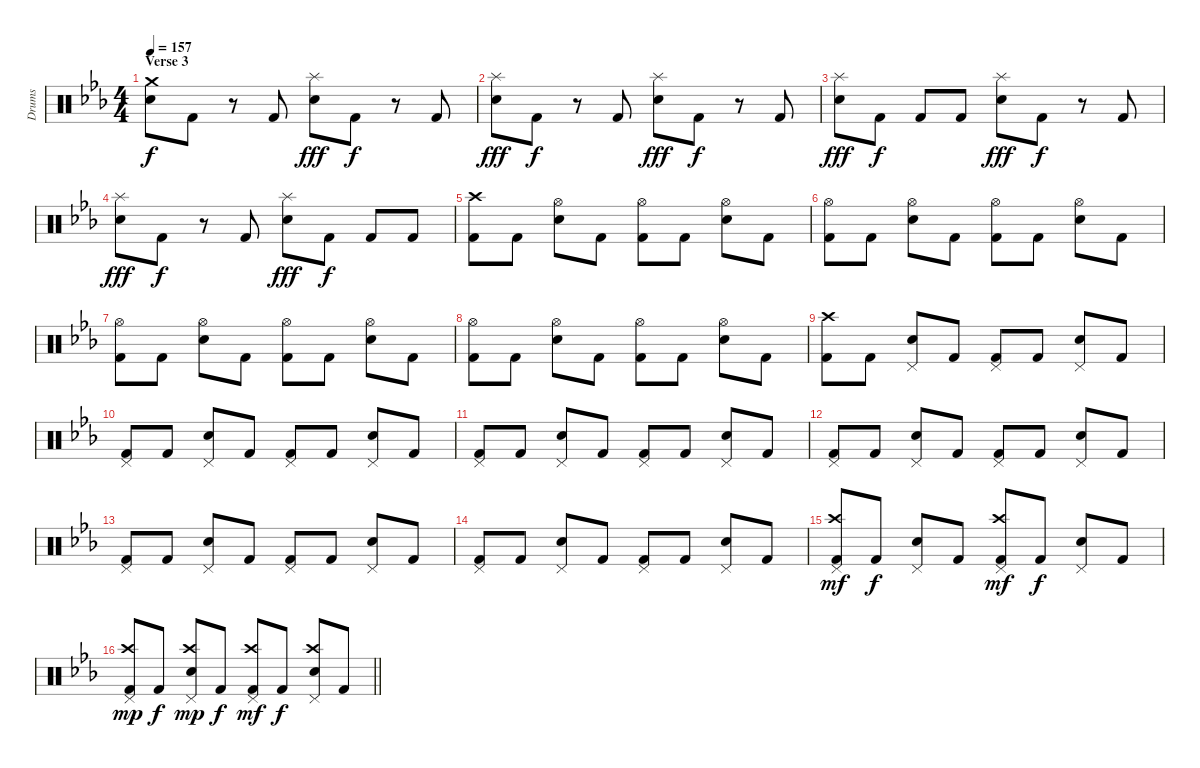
\track ("Drums" "Drums") {instrument percussion}
\staff {score}
\articulation defaults
\ts (4 4)
\section ("" "Verse 3")
\tempo 157
\clef neutral
\ks cminor
("Crash medium (hit)" "Electric Snare (hit)").8{dy f} "Kick (hit) 2".8 r.8 "Kick (hit) 2".8 ("Splash (hit)" "Electric Snare (hit)").8{dy fff} "Kick (hit) 2".8{dy f} r.8 "Kick (hit) 2".8 |
("Splash (hit)" "Electric Snare (hit)").8{dy fff} "Kick (hit) 2".8{dy f} r.8 "Kick (hit) 2".8 ("Splash (hit)" "Electric Snare (hit)").8{dy fff} "Kick (hit) 2".8{dy f} r.8 "Kick (hit) 2".8 |
("Splash (hit)" "Electric Snare (hit)").8{dy fff} "Kick (hit) 2".8{dy f} "Kick (hit) 2".8 "Kick (hit) 2".8 ("Splash (hit)" "Electric Snare (hit)").8{dy fff} "Kick (hit) 2".8{dy f} r.8 "Kick (hit) 2".8 |
("Splash (hit)" "Electric Snare (hit)").8{dy fff} "Kick (hit) 2".8{dy f} r.8 "Kick (hit) 2".8 ("Splash (hit)" "Electric Snare (hit)").8{dy fff} "Kick (hit) 2".8{dy f} "Kick (hit) 2".8 "Kick (hit) 2".8 |
("Crash high (hit)" "Kick (hit) 2").8 "Kick (hit) 2".8 ("Hi-Hat (open)" "Electric Snare (hit)").8 "Kick (hit) 2".8 ("Hi-Hat (open)" "Kick (hit) 2").8 "Kick (hit) 2".8 ("Hi-Hat (open)" "Electric Snare (hit)").8 "Kick (hit) 2".8 |
("Hi-Hat (open)" "Kick (hit) 2").8 "Kick (hit) 2".8 ("Hi-Hat (open)" "Electric Snare (hit)").8 "Kick (hit) 2".8 ("Hi-Hat (open)" "Kick (hit) 2").8 "Kick (hit) 2".8 ("Hi-Hat (open)" "Electric Snare (hit)").8 "Kick (hit) 2".8 |
("Hi-Hat (open)" "Kick (hit) 2").8 "Kick (hit) 2".8 ("Hi-Hat (open)" "Electric Snare (hit)").8 "Kick (hit) 2".8 ("Hi-Hat (open)" "Kick (hit) 2").8 "Kick (hit) 2".8 ("Hi-Hat (open)" "Electric Snare (hit)").8 "Kick (hit) 2".8 |
("Hi-Hat (open)" "Kick (hit) 2").8 "Kick (hit) 2".8 ("Hi-Hat (open)" "Electric Snare (hit)").8 "Kick (hit) 2".8 ("Hi-Hat (open)" "Kick (hit) 2").8 "Kick (hit) 2".8 ("Hi-Hat (open)" "Electric Snare (hit)").8 "Kick (hit) 2".8 |
("Crash high (hit)" "Kick (hit) 2").8 "Kick (hit) 2".8 ("Pedal Hi-Hat (hit)" "Electric Snare (hit)").8 "Kick (hit) 2".8 ("Pedal Hi-Hat (hit)" "Kick (hit) 2").8 "Kick (hit) 2".8 ("Pedal Hi-Hat (hit)" "Electric Snare (hit)").8 "Kick (hit) 2".8 |
("Pedal Hi-Hat (hit)" "Kick (hit) 2").8 "Kick (hit) 2".8 ("Pedal Hi-Hat (hit)" "Electric Snare (hit)").8 "Kick (hit) 2".8 ("Pedal Hi-Hat (hit)" "Kick (hit) 2").8 "Kick (hit) 2".8 ("Pedal Hi-Hat (hit)" "Electric Snare (hit)").8 "Kick (hit) 2".8 |
("Pedal Hi-Hat (hit)" "Kick (hit) 2").8 "Kick (hit) 2".8 ("Pedal Hi-Hat (hit)" "Electric Snare (hit)").8 "Kick (hit) 2".8 ("Pedal Hi-Hat (hit)" "Kick (hit) 2").8 "Kick (hit) 2".8 ("Pedal Hi-Hat (hit)" "Electric Snare (hit)").8 "Kick (hit) 2".8 |
("Pedal Hi-Hat (hit)" "Kick (hit) 2").8 "Kick (hit) 2".8 ("Pedal Hi-Hat (hit)" "Electric Snare (hit)").8 "Kick (hit) 2".8 ("Pedal Hi-Hat (hit)" "Kick (hit) 2").8 "Kick (hit) 2".8 ("Pedal Hi-Hat (hit)" "Electric Snare (hit)").8 "Kick (hit) 2".8 |
("Pedal Hi-Hat (hit)" "Kick (hit) 2").8 "Kick (hit) 2".8 ("Pedal Hi-Hat (hit)" "Electric Snare (hit)").8 "Kick (hit) 2".8 ("Pedal Hi-Hat (hit)" "Kick (hit) 2").8 "Kick (hit) 2".8 ("Pedal Hi-Hat (hit)" "Electric Snare (hit)").8 "Kick (hit) 2".8 |
("Pedal Hi-Hat (hit)" "Kick (hit) 2").8 "Kick (hit) 2".8 ("Pedal Hi-Hat (hit)" "Electric Snare (hit)").8 "Kick (hit) 2".8 ("Pedal Hi-Hat (hit)" "Kick (hit) 2").8 "Kick (hit) 2".8 ("Pedal Hi-Hat (hit)" "Electric Snare (hit)").8 "Kick (hit) 2".8 |
("Pedal Hi-Hat (hit)" "Crash high (hit)" "Kick (hit) 2").8{dy mf} "Kick (hit) 2".8{dy f} ("Pedal Hi-Hat (hit)" "Electric Snare (hit)").8 "Kick (hit) 2".8 ("Pedal Hi-Hat (hit)" "Crash high (hit)" "Kick (hit) 2").8{dy mf} "Kick (hit) 2".8{dy f} ("Pedal Hi-Hat (hit)" "Electric Snare (hit)").8 "Kick (hit) 2".8 |
\barLineRight lightlight
("Pedal Hi-Hat (hit)" "Crash high (hit)" "Kick (hit) 2").8{dy mp} "Kick (hit) 2".8{dy f} ("Pedal Hi-Hat (hit)" "Crash high (hit)" "Electric Snare (hit)").8{dy mp} "Kick (hit) 2".8{dy f} ("Pedal Hi-Hat (hit)" "Crash high (hit)" "Kick (hit) 2").8{dy mf} "Kick (hit) 2".8{dy f} ("Pedal Hi-Hat (hit)" "Crash high (hit)" "Electric Snare (hit)").8 "Kick (hit) 2".8
